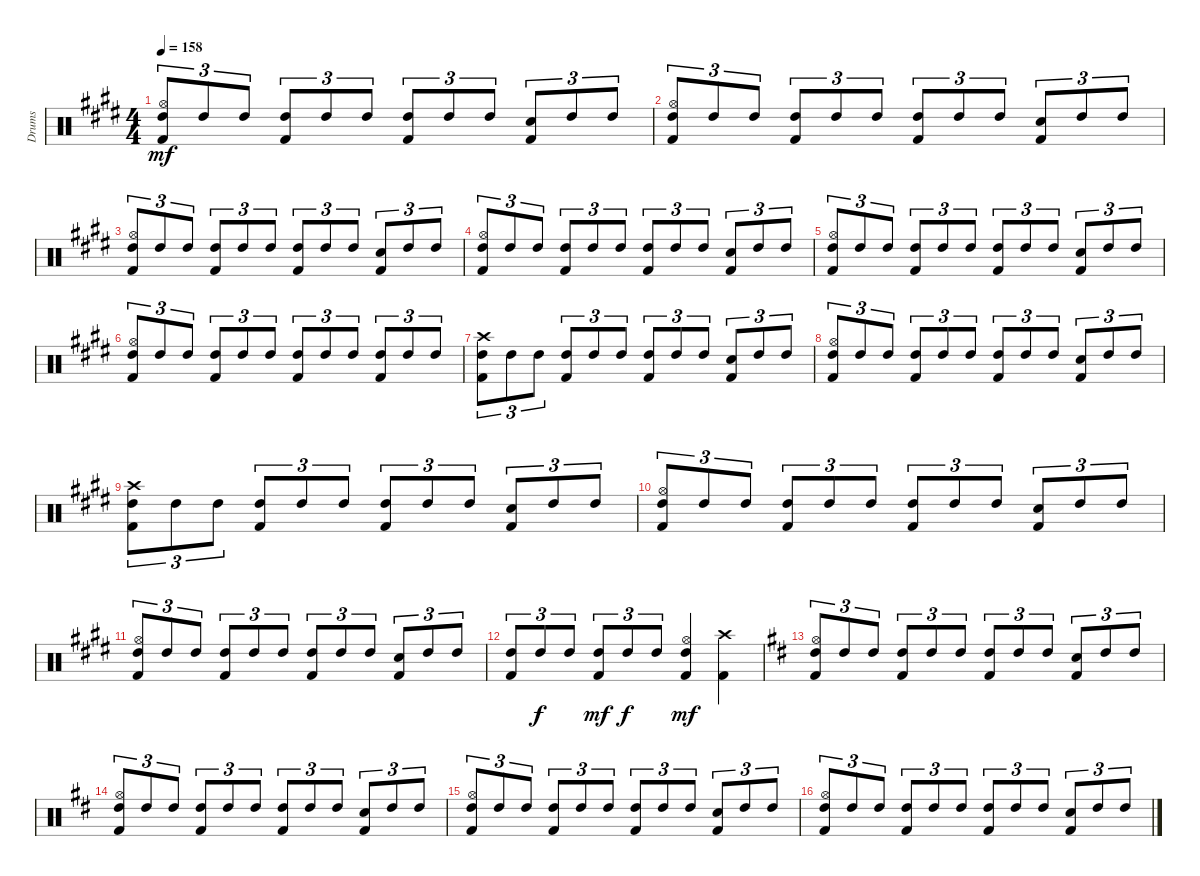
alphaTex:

\track ("Drums" "Drums") {instrument percussion}
\staff {score}
\articulation defaults
\ts (4 4)
\tempo 158
\clef neutral
\ks e
("Kick (hit) 2" "Hi-Hat (open)" "High Tom (hit)").8{tu (3 2) dy mf} "High Tom (hit)".8{tu (3 2)} "High Tom (hit)".8{tu (3 2)} ("Kick (hit) 2" "High Tom (hit)").8{tu (3 2)} "High Tom (hit)".8{tu (3 2)} "High Tom (hit)".8{tu (3 2)} ("Kick (hit) 2" "High Tom (hit)").8{tu (3 2)} "High Tom (hit)".8{tu (3 2)} "High Tom (hit)".8{tu (3 2)} ("Kick (hit) 2" "Snare (hit) 2").8{tu (3 2)} "High Tom (hit)".8{tu (3 2)} "High Tom (hit)".8{tu (3 2)} |
("Kick (hit) 2" "Hi-Hat (open)" "High Tom (hit)").8{tu (3 2)} "High Tom (hit)".8{tu (3 2)} "High Tom (hit)".8{tu (3 2)} ("Kick (hit) 2" "High Tom (hit)").8{tu (3 2)} "High Tom (hit)".8{tu (3 2)} "High Tom (hit)".8{tu (3 2)} ("Kick (hit) 2" "High Tom (hit)").8{tu (3 2)} "High Tom (hit)".8{tu (3 2)} "High Tom (hit)".8{tu (3 2)} ("Kick (hit) 2" "Snare (hit) 2").8{tu (3 2)} "High Tom (hit)".8{tu (3 2)} "High Tom (hit)".8{tu (3 2)} |
("Kick (hit) 2" "Hi-Hat (open)" "High Tom (hit)").8{tu (3 2)} "High Tom (hit)".8{tu (3 2)} "High Tom (hit)".8{tu (3 2)} ("Kick (hit) 2" "High Tom (hit)").8{tu (3 2)} "High Tom (hit)".8{tu (3 2)} "High Tom (hit)".8{tu (3 2)} ("Kick (hit) 2" "High Tom (hit)").8{tu (3 2)} "High Tom (hit)".8{tu (3 2)} "High Tom (hit)".8{tu (3 2)} ("Kick (hit) 2" "Snare (hit) 2").8{tu (3 2)} "High Tom (hit)".8{tu (3 2)} "High Tom (hit)".8{tu (3 2)} |
("Kick (hit) 2" "Hi-Hat (open)" "High Tom (hit)").8{tu (3 2)} "High Tom (hit)".8{tu (3 2)} "High Tom (hit)".8{tu (3 2)} ("Kick (hit) 2" "High Tom (hit)").8{tu (3 2)} "High Tom (hit)".8{tu (3 2)} "High Tom (hit)".8{tu (3 2)} ("Kick (hit) 2" "High Tom (hit)").8{tu (3 2)} "High Tom (hit)".8{tu (3 2)} "High Tom (hit)".8{tu (3 2)} ("Kick (hit) 2" "Snare (hit) 2").8{tu (3 2)} "High Tom (hit)".8{tu (3 2)} "High Tom (hit)".8{tu (3 2)} |
("Kick (hit) 2" "Hi-Hat (open)" "High Tom (hit)").8{tu (3 2)} "High Tom (hit)".8{tu (3 2)} "High Tom (hit)".8{tu (3 2)} ("Kick (hit) 2" "High Tom (hit)").8{tu (3 2)} "High Tom (hit)".8{tu (3 2)} "High Tom (hit)".8{tu (3 2)} ("Kick (hit) 2" "High Tom (hit)").8{tu (3 2)} "High Tom (hit)".8{tu (3 2)} "High Tom (hit)".8{tu (3 2)} ("Kick (hit) 2" "Snare (hit) 2").8{tu (3 2)} "High Tom (hit)".8{tu (3 2)} "High Tom (hit)".8{tu (3 2)} |
("Kick (hit) 2" "Hi-Hat (open)" "High Tom (hit)").8{tu (3 2)} "High Tom (hit)".8{tu (3 2)} "High Tom (hit)".8{tu (3 2)} ("Kick (hit) 2" "High Tom (hit)").8{tu (3 2)} "High Tom (hit)".8{tu (3 2)} "High Tom (hit)".8{tu (3 2)} ("Kick (hit) 2" "High Tom (hit)").8{tu (3 2)} "High Tom (hit)".8{tu (3 2)} "High Tom (hit)".8{tu (3 2)} ("Kick (hit) 2" "High Tom (hit)").8{tu (3 2)} "High Tom (hit)".8{tu (3 2)} "High Tom (hit)".8{tu (3 2)} |
("Kick (hit) 2" "High Tom (hit)" "Crash high (hit)").8{tu (3 2)} "High Tom (hit)".8{tu (3 2)} "High Tom (hit)".8{tu (3 2)} ("Kick (hit) 2" "High Tom (hit)").8{tu (3 2)} "High Tom (hit)".8{tu (3 2)} "High Tom (hit)".8{tu (3 2)} ("Kick (hit) 2" "High Tom (hit)").8{tu (3 2)} "High Tom (hit)".8{tu (3 2)} "High Tom (hit)".8{tu (3 2)} ("Kick (hit) 2" "Snare (hit) 2").8{tu (3 2)} "High Tom (hit)".8{tu (3 2)} "High Tom (hit)".8{tu (3 2)} |
("Kick (hit) 2" "Hi-Hat (open)" "High Tom (hit)").8{tu (3 2)} "High Tom (hit)".8{tu (3 2)} "High Tom (hit)".8{tu (3 2)} ("Kick (hit) 2" "High Tom (hit)").8{tu (3 2)} "High Tom (hit)".8{tu (3 2)} "High Tom (hit)".8{tu (3 2)} ("Kick (hit) 2" "High Tom (hit)").8{tu (3 2)} "High Tom (hit)".8{tu (3 2)} "High Tom (hit)".8{tu (3 2)} ("Kick (hit) 2" "Snare (hit) 2").8{tu (3 2)} "High Tom (hit)".8{tu (3 2)} "High Tom (hit)".8{tu (3 2)} |
("Kick (hit) 2" "High Tom (hit)" "Crash high (hit)").8{tu (3 2)} "High Tom (hit)".8{tu (3 2)} "High Tom (hit)".8{tu (3 2)} ("Kick (hit) 2" "High Tom (hit)").8{tu (3 2)} "High Tom (hit)".8{tu (3 2)} "High Tom (hit)".8{tu (3 2)} ("Kick (hit) 2" "High Tom (hit)").8{tu (3 2)} "High Tom (hit)".8{tu (3 2)} "High Tom (hit)".8{tu (3 2)} ("Kick (hit) 2" "Snare (hit) 2").8{tu (3 2)} "High Tom (hit)".8{tu (3 2)} "High Tom (hit)".8{tu (3 2)} |
("Kick (hit) 2" "Hi-Hat (open)" "High Tom (hit)").8{tu (3 2)} "High Tom (hit)".8{tu (3 2)} "High Tom (hit)".8{tu (3 2)} ("Kick (hit) 2" "High Tom (hit)").8{tu (3 2)} "High Tom (hit)".8{tu (3 2)} "High Tom (hit)".8{tu (3 2)} ("Kick (hit) 2" "High Tom (hit)").8{tu (3 2)} "High Tom (hit)".8{tu (3 2)} "High Tom (hit)".8{tu (3 2)} ("Kick (hit) 2" "Snare (hit) 2").8{tu (3 2)} "High Tom (hit)".8{tu (3 2)} "High Tom (hit)".8{tu (3 2)} |
("Kick (hit) 2" "Hi-Hat (open)" "High Tom (hit)").8{tu (3 2)} "High Tom (hit)".8{tu (3 2)} "High Tom (hit)".8{tu (3 2)} ("Kick (hit) 2" "High Tom (hit)").8{tu (3 2)} "High Tom (hit)".8{tu (3 2)} "High Tom (hit)".8{tu (3 2)} ("Kick (hit) 2" "High Tom (hit)").8{tu (3 2)} "High Tom (hit)".8{tu (3 2)} "High Tom (hit)".8{tu (3 2)} ("Kick (hit) 2" "Snare (hit) 2").8{tu (3 2)} "High Tom (hit)".8{tu (3 2)} "High Tom (hit)".8{tu (3 2)} |
("Kick (hit) 2" "High Tom (hit)").8{tu (3 2)} "High Tom (hit)".8{tu (3 2) dy f} "High Tom (hit)".8{tu (3 2)} ("Kick (hit) 2" "High Tom (hit)").8{tu (3 2) dy mf} "High Tom (hit)".8{tu (3 2) dy f} "High Tom (hit)".8{tu (3 2)} ("Kick (hit) 2" "Hi-Hat (open)" "High Tom (hit)").4{dy mf} ("Kick (hit) 2" "Crash high (hit)").4 |
\ks d
("Kick (hit) 2" "Hi-Hat (open)" "High Tom (hit)").8{tu (3 2)} "High Tom (hit)".8{tu (3 2)} "High Tom (hit)".8{tu (3 2)} ("Kick (hit) 2" "High Tom (hit)").8{tu (3 2)} "High Tom (hit)".8{tu (3 2)} "High Tom (hit)".8{tu (3 2)} ("Kick (hit) 2" "High Tom (hit)").8{tu (3 2)} "High Tom (hit)".8{tu (3 2)} "High Tom (hit)".8{tu (3 2)} ("Kick (hit) 2" "Snare (hit) 2").8{tu (3 2)} "High Tom (hit)".8{tu (3 2)} "High Tom (hit)".8{tu (3 2)} |
("Kick (hit) 2" "Hi-Hat (open)" "High Tom (hit)").8{tu (3 2)} "High Tom (hit)".8{tu (3 2)} "High Tom (hit)".8{tu (3 2)} ("Kick (hit) 2" "High Tom (hit)").8{tu (3 2)} "High Tom (hit)".8{tu (3 2)} "High Tom (hit)".8{tu (3 2)} ("Kick (hit) 2" "High Tom (hit)").8{tu (3 2)} "High Tom (hit)".8{tu (3 2)} "High Tom (hit)".8{tu (3 2)} ("Kick (hit) 2" "Snare (hit) 2").8{tu (3 2)} "High Tom (hit)".8{tu (3 2)} "High Tom (hit)".8{tu (3 2)} |
("Kick (hit) 2" "Hi-Hat (open)" "High Tom (hit)").8{tu (3 2)} "High Tom (hit)".8{tu (3 2)} "High Tom (hit)".8{tu (3 2)} ("Kick (hit) 2" "High Tom (hit)").8{tu (3 2)} "High Tom (hit)".8{tu (3 2)} "High Tom (hit)".8{tu (3 2)} ("Kick (hit) 2" "High Tom (hit)").8{tu (3 2)} "High Tom (hit)".8{tu (3 2)} "High Tom (hit)".8{tu (3 2)} ("Kick (hit) 2" "Snare (hit) 2").8{tu (3 2)} "High Tom (hit)".8{tu (3 2)} "High Tom (hit)".8{tu (3 2)} |
("Kick (hit) 2" "Hi-Hat (open)" "High Tom (hit)").8{tu (3 2)} "High Tom (hit)".8{tu (3 2)} "High Tom (hit)".8{tu (3 2)} ("Kick (hit) 2" "High Tom (hit)").8{tu (3 2)} "High Tom (hit)".8{tu (3 2)} "High Tom (hit)".8{tu (3 2)} ("Kick (hit) 2" "High Tom (hit)").8{tu (3 2)} "High Tom (hit)".8{tu (3 2)} "High Tom (hit)".8{tu (3 2)} ("Kick (hit) 2" "Snare (hit) 2").8{tu (3 2)} "High Tom (hit)".8{tu (3 2)} "High Tom (hit)".8{tu (3 2)}
